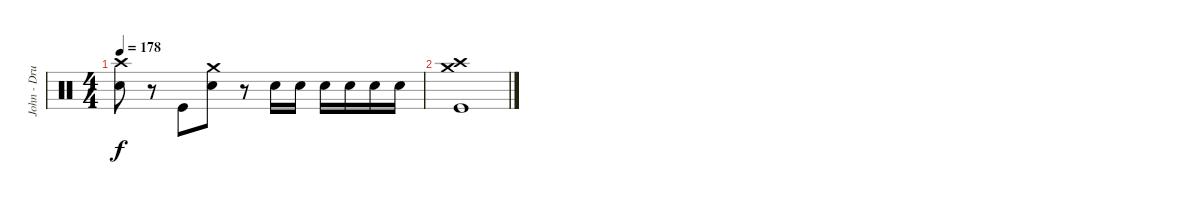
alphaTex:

\track ("John - Drums" "John - Dru") {instrument percussion}
\staff {score}
\articulation defaults
\ts (4 4)
\tempo 178
\clef neutral
\ks c
("Crash high (hit)" "Electric Snare (hit)").8{dy f} r.8 "Kick (hit)".8 ("Crash medium (hit)" "Electric Snare (hit)").8 r.8 "Electric Snare (hit)".16 "Electric Snare (hit)".16 "Electric Snare (hit)".16 "Electric Snare (hit)".16 "Electric Snare (hit)".16 "Electric Snare (hit)".16 |
("Crash high (hit)" "Crash medium (hit)" "Kick (hit)").1
